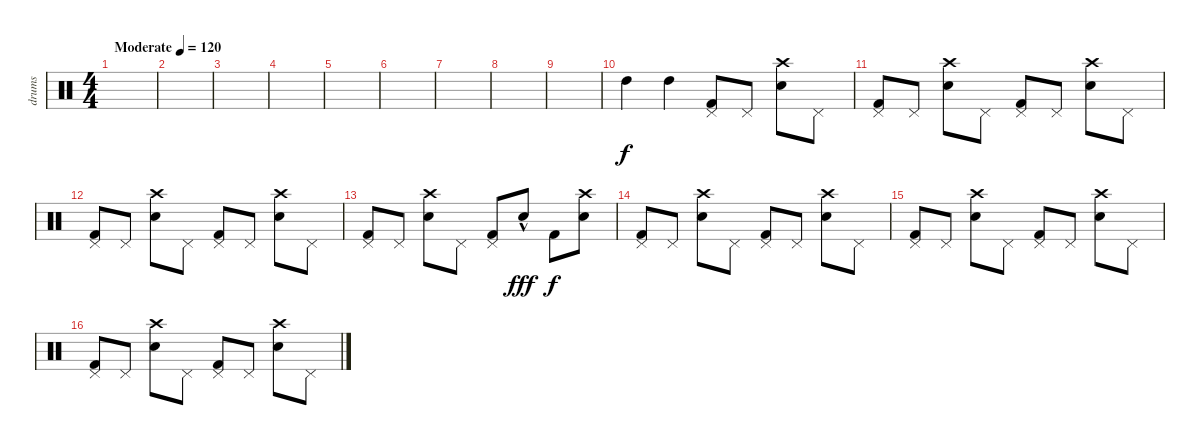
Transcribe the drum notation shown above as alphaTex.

\track ("drums" "drums") {instrument percussion}
\staff {score}
\articulation defaults
\ts (4 4)
\tempo (120 "Moderate")
\clef neutral
\ks c
|
|
|
|
|
|
|
|
|
"High Tom (hit)".4 "High Tom (hit)".4 ("Pedal Hi-Hat (hit)" "Kick (hit) 2").8 "Pedal Hi-Hat (hit)".8 ("Crash high (hit)" "Electric Snare (hit)").8 "Pedal Hi-Hat (hit)".8 |
("Pedal Hi-Hat (hit)" "Kick (hit) 2").8 "Pedal Hi-Hat (hit)".8 ("Crash high (hit)" "Electric Snare (hit)").8 "Pedal Hi-Hat (hit)".8 ("Pedal Hi-Hat (hit)" "Kick (hit) 2").8 "Pedal Hi-Hat (hit)".8 ("Crash high (hit)" "Electric Snare (hit)").8 "Pedal Hi-Hat (hit)".8 |
("Pedal Hi-Hat (hit)" "Kick (hit) 2").8 "Pedal Hi-Hat (hit)".8 ("Crash high (hit)" "Electric Snare (hit)").8 "Pedal Hi-Hat (hit)".8 ("Pedal Hi-Hat (hit)" "Kick (hit) 2").8 "Pedal Hi-Hat (hit)".8 ("Crash high (hit)" "Electric Snare (hit)").8 "Pedal Hi-Hat (hit)".8 |
("Pedal Hi-Hat (hit)" "Kick (hit) 2").8 "Pedal Hi-Hat (hit)".8 ("Crash high (hit)" "Electric Snare (hit)").8 "Pedal Hi-Hat (hit)".8 ("Pedal Hi-Hat (hit)" "Kick (hit) 2").8 "Electric Snare (hit)"{hac}.8{dy fff} "Kick (hit) 2".8{dy f} ("Crash high (hit)" "Electric Snare (hit)").8 |
("Pedal Hi-Hat (hit)" "Kick (hit) 2").8 "Pedal Hi-Hat (hit)".8 ("Crash high (hit)" "Electric Snare (hit)").8 "Pedal Hi-Hat (hit)".8 ("Pedal Hi-Hat (hit)" "Kick (hit) 2").8 "Pedal Hi-Hat (hit)".8 ("Crash high (hit)" "Electric Snare (hit)").8 "Pedal Hi-Hat (hit)".8 |
("Pedal Hi-Hat (hit)" "Kick (hit) 2").8 "Pedal Hi-Hat (hit)".8 ("Crash high (hit)" "Electric Snare (hit)").8 "Pedal Hi-Hat (hit)".8 ("Pedal Hi-Hat (hit)" "Kick (hit) 2").8 "Pedal Hi-Hat (hit)".8 ("Crash high (hit)" "Electric Snare (hit)").8 "Pedal Hi-Hat (hit)".8 |
("Pedal Hi-Hat (hit)" "Kick (hit) 2").8 "Pedal Hi-Hat (hit)".8 ("Crash high (hit)" "Electric Snare (hit)").8 "Pedal Hi-Hat (hit)".8 ("Pedal Hi-Hat (hit)" "Kick (hit) 2").8 "Pedal Hi-Hat (hit)".8 ("Crash high (hit)" "Electric Snare (hit)").8 "Pedal Hi-Hat (hit)".8
